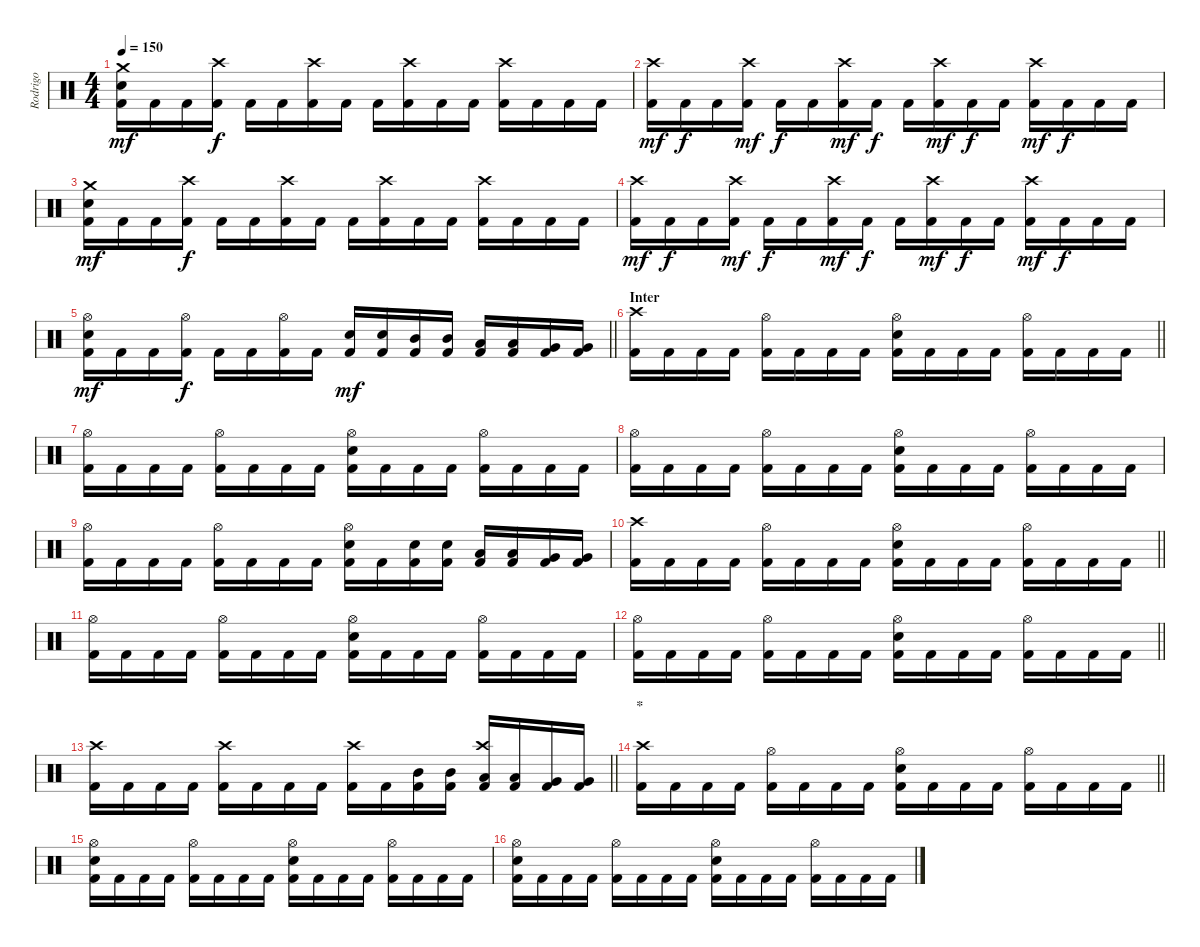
\track ("Rodrigo" "Rodrigo") {instrument percussion}
\staff {score}
\articulation defaults
\ts (4 4)
\tempo 150
\clef neutral
\ks c
("Crash medium (hit)" "Electric Snare (hit)" "Kick (hit) 2").16{dy mf} "Kick (hit) 2".16 "Kick (hit) 2".16 ("Crash high (hit)" "Kick (hit) 2").16{dy f} "Kick (hit) 2".16 "Kick (hit) 2".16 ("Crash high (hit)" "Kick (hit) 2").16 "Kick (hit) 2".16 "Kick (hit) 2".16 ("Crash high (hit)" "Kick (hit) 2").16 "Kick (hit) 2".16 "Kick (hit) 2".16 ("Crash high (hit)" "Kick (hit) 2").16 "Kick (hit) 2".16 "Kick (hit) 2".16 "Kick (hit) 2".16 |
("Crash high (hit)" "Kick (hit) 2").16{dy mf} "Kick (hit) 2".16{dy f} "Kick (hit) 2".16 ("Crash high (hit)" "Kick (hit) 2").16{dy mf} "Kick (hit) 2".16{dy f} "Kick (hit) 2".16 ("Crash high (hit)" "Kick (hit) 2").16{dy mf} "Kick (hit) 2".16{dy f} "Kick (hit) 2".16 ("Crash high (hit)" "Kick (hit) 2").16{dy mf} "Kick (hit) 2".16{dy f} "Kick (hit) 2".16 ("Crash high (hit)" "Kick (hit) 2").16{dy mf} "Kick (hit) 2".16{dy f} "Kick (hit) 2".16 "Kick (hit) 2".16 |
("Crash medium (hit)" "Electric Snare (hit)" "Kick (hit) 2").16{dy mf} "Kick (hit) 2".16 "Kick (hit) 2".16 ("Crash high (hit)" "Kick (hit) 2").16{dy f} "Kick (hit) 2".16 "Kick (hit) 2".16 ("Crash high (hit)" "Kick (hit) 2").16 "Kick (hit) 2".16 "Kick (hit) 2".16 ("Crash high (hit)" "Kick (hit) 2").16 "Kick (hit) 2".16 "Kick (hit) 2".16 ("Crash high (hit)" "Kick (hit) 2").16 "Kick (hit) 2".16 "Kick (hit) 2".16 "Kick (hit) 2".16 |
("Crash high (hit)" "Kick (hit) 2").16{dy mf} "Kick (hit) 2".16{dy f} "Kick (hit) 2".16 ("Crash high (hit)" "Kick (hit) 2").16{dy mf} "Kick (hit) 2".16{dy f} "Kick (hit) 2".16 ("Crash high (hit)" "Kick (hit) 2").16{dy mf} "Kick (hit) 2".16{dy f} "Kick (hit) 2".16 ("Crash high (hit)" "Kick (hit) 2").16{dy mf} "Kick (hit) 2".16{dy f} "Kick (hit) 2".16 ("Crash high (hit)" "Kick (hit) 2").16{dy mf} "Kick (hit) 2".16{dy f} "Kick (hit) 2".16 "Kick (hit) 2".16 |
\barLineRight lightlight
("Hi-Hat (open)" "Electric Snare (hit)" "Kick (hit) 2").16{dy mf} "Kick (hit) 2".16 "Kick (hit) 2".16 ("Hi-Hat (open)" "Kick (hit) 2").16{dy f} "Kick (hit) 2".16 "Kick (hit) 2".16 ("Hi-Hat (open)" "Kick (hit) 2").16 "Kick (hit) 2".16 ("Electric Snare (hit)" "Kick (hit) 2").16{dy mf} ("Electric Snare (hit)" "Kick (hit) 2").16 ("Mid Tom (hit)" "Kick (hit) 2").16 ("Mid Tom (hit)" "Kick (hit) 2").16 ("Low Tom (hit)" "Kick (hit) 2").16 ("Low Tom (hit)" "Kick (hit) 2").16 ("Very Low Tom (hit)" "Kick (hit) 2").16 ("Very Low Tom (hit)" "Kick (hit) 2").16 |
\section ("" "Inter")
\barLineRight lightlight
("Crash high (hit)" "Kick (hit) 2").16 "Kick (hit) 2".16 "Kick (hit) 2".16 "Kick (hit) 2".16 ("Hi-Hat (open)" "Kick (hit) 2").16 "Kick (hit) 2".16 "Kick (hit) 2".16 "Kick (hit) 2".16 ("Hi-Hat (open)" "Electric Snare (hit)" "Kick (hit) 2").16 "Kick (hit) 2".16 "Kick (hit) 2".16 "Kick (hit) 2".16 ("Hi-Hat (open)" "Kick (hit) 2").16 "Kick (hit) 2".16 "Kick (hit) 2".16 "Kick (hit) 2".16 |
("Hi-Hat (open)" "Kick (hit) 2").16 "Kick (hit) 2".16 "Kick (hit) 2".16 "Kick (hit) 2".16 ("Hi-Hat (open)" "Kick (hit) 2").16 "Kick (hit) 2".16 "Kick (hit) 2".16 "Kick (hit) 2".16 ("Hi-Hat (open)" "Electric Snare (hit)" "Kick (hit) 2").16 "Kick (hit) 2".16 "Kick (hit) 2".16 "Kick (hit) 2".16 ("Hi-Hat (open)" "Kick (hit) 2").16 "Kick (hit) 2".16 "Kick (hit) 2".16 "Kick (hit) 2".16 |
("Hi-Hat (open)" "Kick (hit) 2").16 "Kick (hit) 2".16 "Kick (hit) 2".16 "Kick (hit) 2".16 ("Hi-Hat (open)" "Kick (hit) 2").16 "Kick (hit) 2".16 "Kick (hit) 2".16 "Kick (hit) 2".16 ("Hi-Hat (open)" "Electric Snare (hit)" "Kick (hit) 2").16 "Kick (hit) 2".16 "Kick (hit) 2".16 "Kick (hit) 2".16 ("Hi-Hat (open)" "Kick (hit) 2").16 "Kick (hit) 2".16 "Kick (hit) 2".16 "Kick (hit) 2".16 |
("Hi-Hat (open)" "Kick (hit) 2").16 "Kick (hit) 2".16 "Kick (hit) 2".16 "Kick (hit) 2".16 ("Hi-Hat (open)" "Kick (hit) 2").16 "Kick (hit) 2".16 "Kick (hit) 2".16 "Kick (hit) 2".16 ("Hi-Hat (open)" "Electric Snare (hit)" "Kick (hit) 2").16 "Kick (hit) 2".16 ("Electric Snare (hit)" "Kick (hit) 2").16 ("Electric Snare (hit)" "Kick (hit) 2").16 ("Low Tom (hit)" "Kick (hit) 2").16 ("Low Tom (hit)" "Kick (hit) 2").16 ("Very Low Tom (hit)" "Kick (hit) 2").16 ("Very Low Tom (hit)" "Kick (hit) 2").16 |
\barLineRight lightlight
("Crash high (hit)" "Kick (hit) 2").16 "Kick (hit) 2".16 "Kick (hit) 2".16 "Kick (hit) 2".16 ("Hi-Hat (open)" "Kick (hit) 2").16 "Kick (hit) 2".16 "Kick (hit) 2".16 "Kick (hit) 2".16 ("Hi-Hat (open)" "Electric Snare (hit)" "Kick (hit) 2").16 "Kick (hit) 2".16 "Kick (hit) 2".16 "Kick (hit) 2".16 ("Hi-Hat (open)" "Kick (hit) 2").16 "Kick (hit) 2".16 "Kick (hit) 2".16 "Kick (hit) 2".16 |
("Hi-Hat (open)" "Kick (hit) 2").16 "Kick (hit) 2".16 "Kick (hit) 2".16 "Kick (hit) 2".16 ("Hi-Hat (open)" "Kick (hit) 2").16 "Kick (hit) 2".16 "Kick (hit) 2".16 "Kick (hit) 2".16 ("Hi-Hat (open)" "Electric Snare (hit)" "Kick (hit) 2").16 "Kick (hit) 2".16 "Kick (hit) 2".16 "Kick (hit) 2".16 ("Hi-Hat (open)" "Kick (hit) 2").16 "Kick (hit) 2".16 "Kick (hit) 2".16 "Kick (hit) 2".16 |
\barLineRight lightlight
("Hi-Hat (open)" "Kick (hit) 2").16 "Kick (hit) 2".16 "Kick (hit) 2".16 "Kick (hit) 2".16 ("Hi-Hat (open)" "Kick (hit) 2").16 "Kick (hit) 2".16 "Kick (hit) 2".16 "Kick (hit) 2".16 ("Hi-Hat (open)" "Electric Snare (hit)" "Kick (hit) 2").16 "Kick (hit) 2".16 "Kick (hit) 2".16 "Kick (hit) 2".16 ("Hi-Hat (open)" "Kick (hit) 2").16 "Kick (hit) 2".16 "Kick (hit) 2".16 "Kick (hit) 2".16 |
\barLineRight lightlight
("Crash high (hit)" "Kick (hit) 2").16 "Kick (hit) 2".16 "Kick (hit) 2".16 "Kick (hit) 2".16 ("Crash high (hit)" "Kick (hit) 2").16 "Kick (hit) 2".16 "Kick (hit) 2".16 "Kick (hit) 2".16 ("Crash high (hit)" "Kick (hit) 2").16 "Kick (hit) 2".16 ("Mid Tom (hit)" "Kick (hit) 2").16 ("Mid Tom (hit)" "Kick (hit) 2").16 ("Crash high (hit)" "Low Tom (hit)" "Kick (hit) 2").16 ("Low Tom (hit)" "Kick (hit) 2").16 ("Very Low Tom (hit)" "Kick (hit) 2").16 ("Very Low Tom (hit)" "Kick (hit) 2").16 |
\section ("" "*")
\barLineRight lightlight
("Crash high (hit)" "Kick (hit) 2").16 "Kick (hit) 2".16 "Kick (hit) 2".16 "Kick (hit) 2".16 ("Hi-Hat (open)" "Kick (hit) 2").16 "Kick (hit) 2".16 "Kick (hit) 2".16 "Kick (hit) 2".16 ("Hi-Hat (open)" "Electric Snare (hit)" "Kick (hit) 2").16 "Kick (hit) 2".16 "Kick (hit) 2".16 "Kick (hit) 2".16 ("Hi-Hat (open)" "Kick (hit) 2").16 "Kick (hit) 2".16 "Kick (hit) 2".16 "Kick (hit) 2".16 |
("Hi-Hat (open)" "Electric Snare (hit)" "Kick (hit) 2").16 "Kick (hit) 2".16 "Kick (hit) 2".16 "Kick (hit) 2".16 ("Hi-Hat (open)" "Kick (hit) 2").16 "Kick (hit) 2".16 "Kick (hit) 2".16 "Kick (hit) 2".16 ("Hi-Hat (open)" "Electric Snare (hit)" "Kick (hit) 2").16 "Kick (hit) 2".16 "Kick (hit) 2".16 "Kick (hit) 2".16 ("Hi-Hat (open)" "Kick (hit) 2").16 "Kick (hit) 2".16 "Kick (hit) 2".16 "Kick (hit) 2".16 |
("Hi-Hat (open)" "Electric Snare (hit)" "Kick (hit) 2").16 "Kick (hit) 2".16 "Kick (hit) 2".16 "Kick (hit) 2".16 ("Hi-Hat (open)" "Kick (hit) 2").16 "Kick (hit) 2".16 "Kick (hit) 2".16 "Kick (hit) 2".16 ("Hi-Hat (open)" "Electric Snare (hit)" "Kick (hit) 2").16 "Kick (hit) 2".16 "Kick (hit) 2".16 "Kick (hit) 2".16 ("Hi-Hat (open)" "Kick (hit) 2").16 "Kick (hit) 2".16 "Kick (hit) 2".16 "Kick (hit) 2".16
